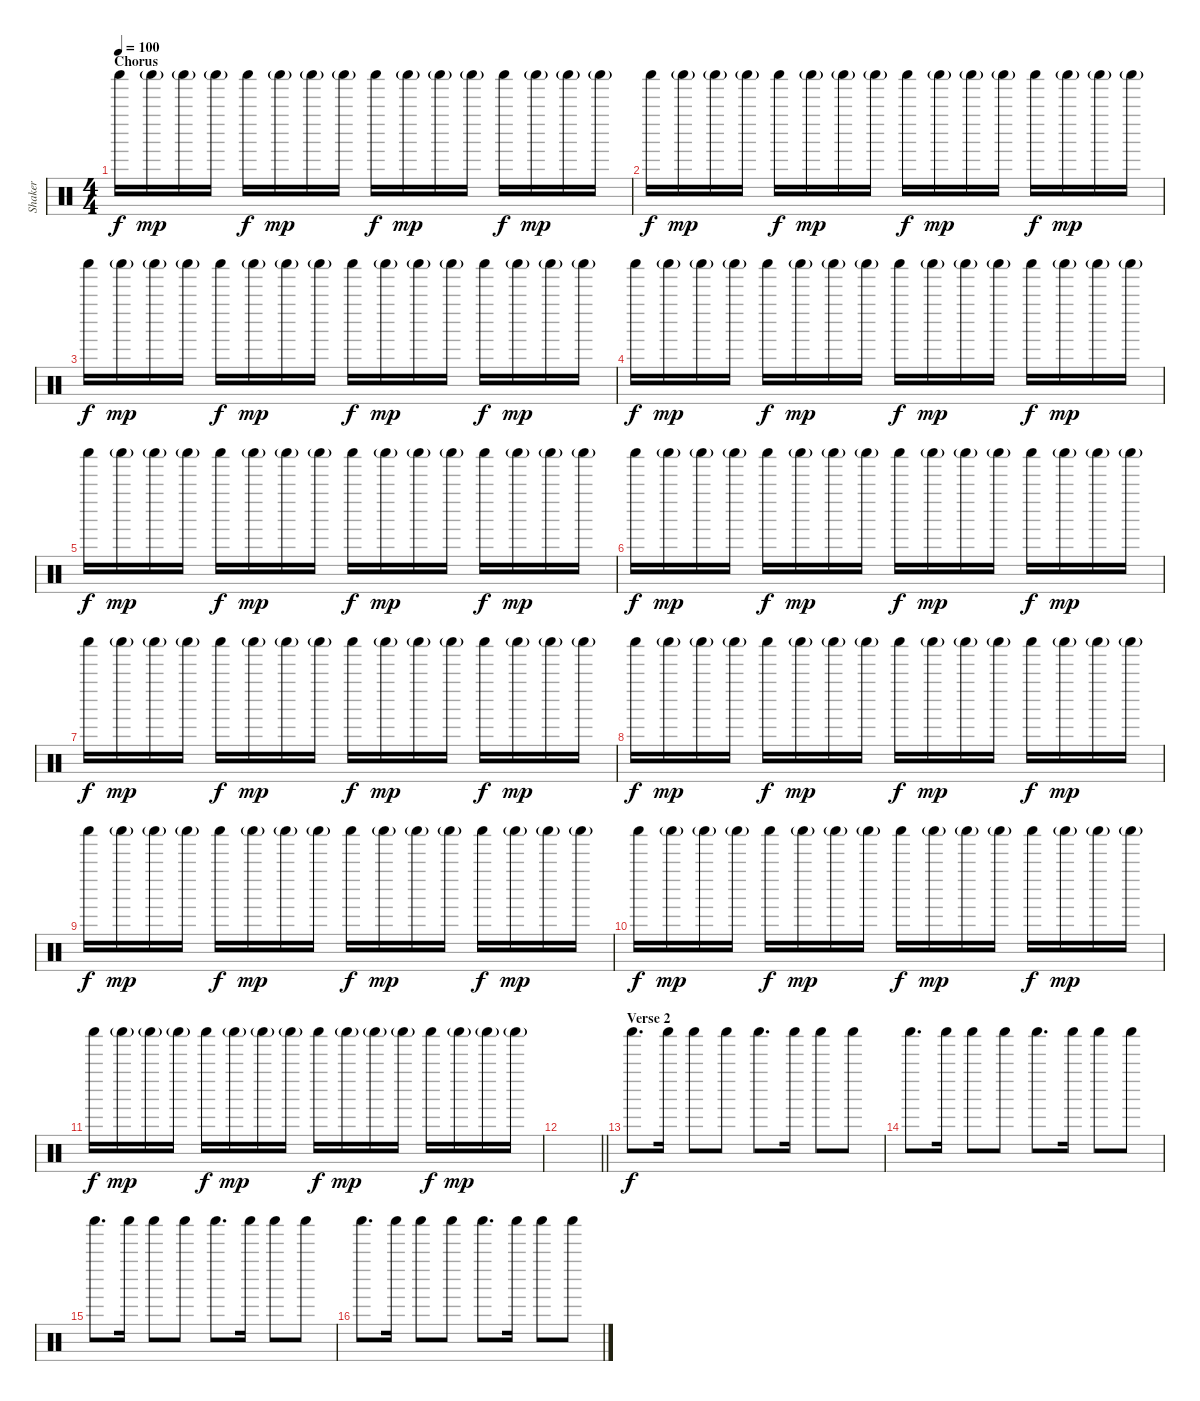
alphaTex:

\track ("Shaker" "Shaker") {instrument percussion}
\staff {score}
\articulation defaults
\ts (4 4)
\section ("" "Chorus")
\tempo 100
\clef neutral
\ks c "Shaker (hit)".16{dy f} "Shaker (hit)"{g}.16{dy mp} "Shaker (hit)"{g}.16 "Shaker (hit)"{g}.16 "Shaker (hit)".16{dy f} "Shaker (hit)"{g}.16{dy mp} "Shaker (hit)"{g}.16 "Shaker (hit)"{g}.16 "Shaker (hit)".16{dy f} "Shaker (hit)"{g}.16{dy mp} "Shaker (hit)"{g}.16 "Shaker (hit)"{g}.16 "Shaker (hit)".16{dy f} "Shaker (hit)"{g}.16{dy mp} "Shaker (hit)"{g}.16 "Shaker (hit)"{g}.16
|
"Shaker (hit)".16{dy f} "Shaker (hit)"{g}.16{dy mp} "Shaker (hit)"{g}.16 "Shaker (hit)"{g}.16 "Shaker (hit)".16{dy f} "Shaker (hit)"{g}.16{dy mp} "Shaker (hit)"{g}.16 "Shaker (hit)"{g}.16 "Shaker (hit)".16{dy f} "Shaker (hit)"{g}.16{dy mp} "Shaker (hit)"{g}.16 "Shaker (hit)"{g}.16 "Shaker (hit)".16{dy f} "Shaker (hit)"{g}.16{dy mp} "Shaker (hit)"{g}.16 "Shaker (hit)"{g}.16 |
"Shaker (hit)".16{dy f} "Shaker (hit)"{g}.16{dy mp} "Shaker (hit)"{g}.16 "Shaker (hit)"{g}.16 "Shaker (hit)".16{dy f} "Shaker (hit)"{g}.16{dy mp} "Shaker (hit)"{g}.16 "Shaker (hit)"{g}.16 "Shaker (hit)".16{dy f} "Shaker (hit)"{g}.16{dy mp} "Shaker (hit)"{g}.16 "Shaker (hit)"{g}.16 "Shaker (hit)".16{dy f} "Shaker (hit)"{g}.16{dy mp} "Shaker (hit)"{g}.16 "Shaker (hit)"{g}.16 |
"Shaker (hit)".16{dy f} "Shaker (hit)"{g}.16{dy mp} "Shaker (hit)"{g}.16 "Shaker (hit)"{g}.16 "Shaker (hit)".16{dy f} "Shaker (hit)"{g}.16{dy mp} "Shaker (hit)"{g}.16 "Shaker (hit)"{g}.16 "Shaker (hit)".16{dy f} "Shaker (hit)"{g}.16{dy mp} "Shaker (hit)"{g}.16 "Shaker (hit)"{g}.16 "Shaker (hit)".16{dy f} "Shaker (hit)"{g}.16{dy mp} "Shaker (hit)"{g}.16 "Shaker (hit)"{g}.16 |
"Shaker (hit)".16{dy f} "Shaker (hit)"{g}.16{dy mp} "Shaker (hit)"{g}.16 "Shaker (hit)"{g}.16 "Shaker (hit)".16{dy f} "Shaker (hit)"{g}.16{dy mp} "Shaker (hit)"{g}.16 "Shaker (hit)"{g}.16 "Shaker (hit)".16{dy f} "Shaker (hit)"{g}.16{dy mp} "Shaker (hit)"{g}.16 "Shaker (hit)"{g}.16 "Shaker (hit)".16{dy f} "Shaker (hit)"{g}.16{dy mp} "Shaker (hit)"{g}.16 "Shaker (hit)"{g}.16 |
"Shaker (hit)".16{dy f} "Shaker (hit)"{g}.16{dy mp} "Shaker (hit)"{g}.16 "Shaker (hit)"{g}.16 "Shaker (hit)".16{dy f} "Shaker (hit)"{g}.16{dy mp} "Shaker (hit)"{g}.16 "Shaker (hit)"{g}.16 "Shaker (hit)".16{dy f} "Shaker (hit)"{g}.16{dy mp} "Shaker (hit)"{g}.16 "Shaker (hit)"{g}.16 "Shaker (hit)".16{dy f} "Shaker (hit)"{g}.16{dy mp} "Shaker (hit)"{g}.16 "Shaker (hit)"{g}.16 |
"Shaker (hit)".16{dy f} "Shaker (hit)"{g}.16{dy mp} "Shaker (hit)"{g}.16 "Shaker (hit)"{g}.16 "Shaker (hit)".16{dy f} "Shaker (hit)"{g}.16{dy mp} "Shaker (hit)"{g}.16 "Shaker (hit)"{g}.16 "Shaker (hit)".16{dy f} "Shaker (hit)"{g}.16{dy mp} "Shaker (hit)"{g}.16 "Shaker (hit)"{g}.16 "Shaker (hit)".16{dy f} "Shaker (hit)"{g}.16{dy mp} "Shaker (hit)"{g}.16 "Shaker (hit)"{g}.16 |
"Shaker (hit)".16{dy f} "Shaker (hit)"{g}.16{dy mp} "Shaker (hit)"{g}.16 "Shaker (hit)"{g}.16 "Shaker (hit)".16{dy f} "Shaker (hit)"{g}.16{dy mp} "Shaker (hit)"{g}.16 "Shaker (hit)"{g}.16 "Shaker (hit)".16{dy f} "Shaker (hit)"{g}.16{dy mp} "Shaker (hit)"{g}.16 "Shaker (hit)"{g}.16 "Shaker (hit)".16{dy f} "Shaker (hit)"{g}.16{dy mp} "Shaker (hit)"{g}.16 "Shaker (hit)"{g}.16 |
"Shaker (hit)".16{dy f} "Shaker (hit)"{g}.16{dy mp} "Shaker (hit)"{g}.16 "Shaker (hit)"{g}.16 "Shaker (hit)".16{dy f} "Shaker (hit)"{g}.16{dy mp} "Shaker (hit)"{g}.16 "Shaker (hit)"{g}.16 "Shaker (hit)".16{dy f} "Shaker (hit)"{g}.16{dy mp} "Shaker (hit)"{g}.16 "Shaker (hit)"{g}.16 "Shaker (hit)".16{dy f} "Shaker (hit)"{g}.16{dy mp} "Shaker (hit)"{g}.16 "Shaker (hit)"{g}.16 |
"Shaker (hit)".16{dy f} "Shaker (hit)"{g}.16{dy mp} "Shaker (hit)"{g}.16 "Shaker (hit)"{g}.16 "Shaker (hit)".16{dy f} "Shaker (hit)"{g}.16{dy mp} "Shaker (hit)"{g}.16 "Shaker (hit)"{g}.16 "Shaker (hit)".16{dy f} "Shaker (hit)"{g}.16{dy mp} "Shaker (hit)"{g}.16 "Shaker (hit)"{g}.16 "Shaker (hit)".16{dy f} "Shaker (hit)"{g}.16{dy mp} "Shaker (hit)"{g}.16 "Shaker (hit)"{g}.16 |
"Shaker (hit)".16{dy f} "Shaker (hit)"{g}.16{dy mp} "Shaker (hit)"{g}.16 "Shaker (hit)"{g}.16 "Shaker (hit)".16{dy f} "Shaker (hit)"{g}.16{dy mp} "Shaker (hit)"{g}.16 "Shaker (hit)"{g}.16 "Shaker (hit)".16{dy f} "Shaker (hit)"{g}.16{dy mp} "Shaker (hit)"{g}.16 "Shaker (hit)"{g}.16 "Shaker (hit)".16{dy f} "Shaker (hit)"{g}.16{dy mp} "Shaker (hit)"{g}.16 "Shaker (hit)"{g}.16 |
\barLineRight lightlight
|
\section ("" "Verse 2")
"Shaker (hit)".8{d dy f} "Shaker (hit)".16 "Shaker (hit)".8 "Shaker (hit)".8 "Shaker (hit)".8{d} "Shaker (hit)".16 "Shaker (hit)".8 "Shaker (hit)".8 |
"Shaker (hit)".8{d} "Shaker (hit)".16 "Shaker (hit)".8 "Shaker (hit)".8 "Shaker (hit)".8{d} "Shaker (hit)".16 "Shaker (hit)".8 "Shaker (hit)".8 |
"Shaker (hit)".8{d} "Shaker (hit)".16 "Shaker (hit)".8 "Shaker (hit)".8 "Shaker (hit)".8{d} "Shaker (hit)".16 "Shaker (hit)".8 "Shaker (hit)".8 |
"Shaker (hit)".8{d} "Shaker (hit)".16 "Shaker (hit)".8 "Shaker (hit)".8 "Shaker (hit)".8{d} "Shaker (hit)".16 "Shaker (hit)".8 "Shaker (hit)".8
